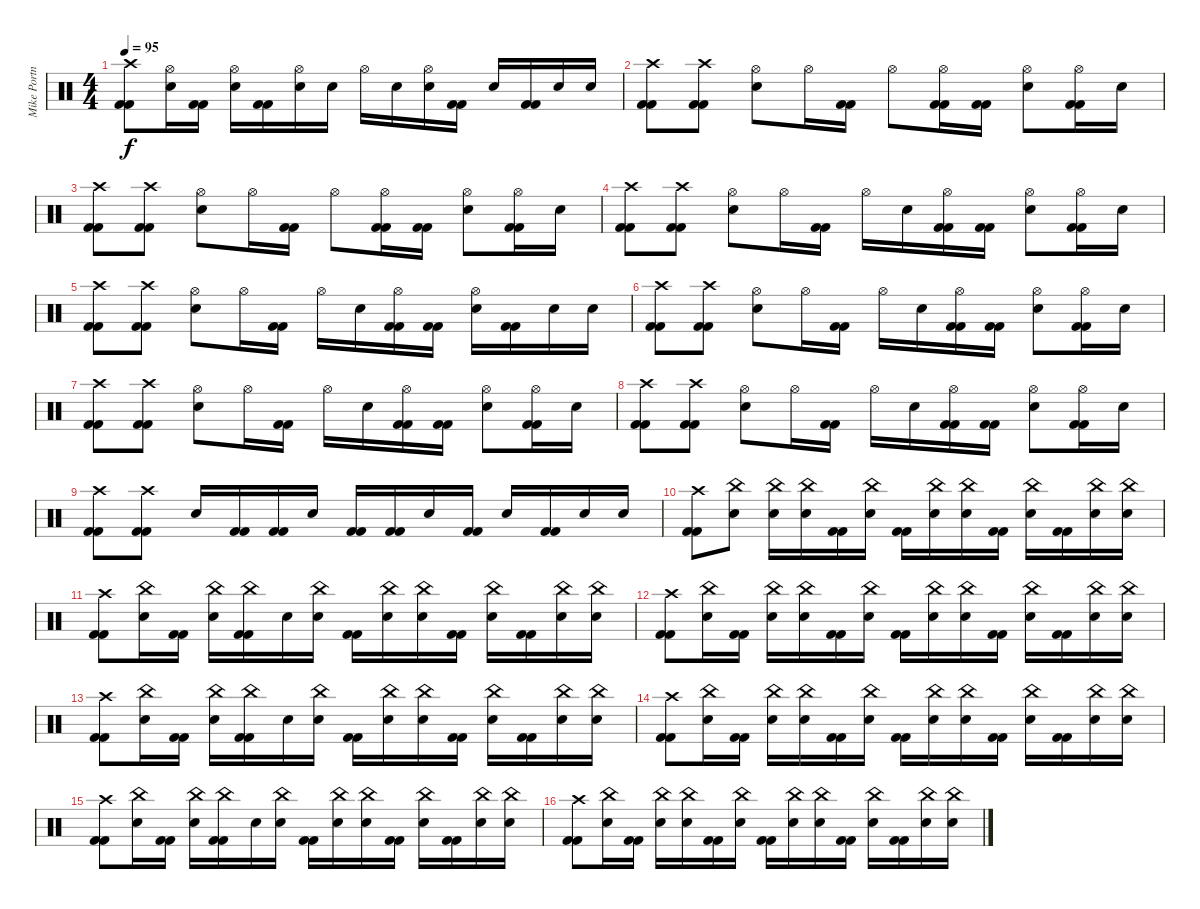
\track ("Mike Portnoy" "Mike Portn") {instrument percussion}
\staff {score}
\articulation defaults
\ts (4 4)
\tempo 95
\clef neutral
\ks c
("Crash high (hit)" "Kick (hit) 2" "Kick (hit) 2").8{dy f} ("Hi-Hat (open)" "Snare (hit) 2").16 ("Kick (hit) 2" "Kick (hit) 2").16 ("Hi-Hat (open)" "Snare (hit) 2").16 ("Kick (hit) 2" "Kick (hit) 2").16 ("Hi-Hat (open)" "Snare (hit) 2").16 "Snare (hit) 2".16 "Hi-Hat (open)".16 "Snare (hit) 2".16 ("Hi-Hat (open)" "Snare (hit) 2").16 ("Kick (hit) 2" "Kick (hit) 2").16 "Snare (hit) 2".16 ("Kick (hit) 2" "Kick (hit) 2").16 "Snare (hit) 2".16 "Snare (hit) 2".16 |
("Crash high (hit)" "Kick (hit) 2" "Kick (hit) 2").8{volume 13} ("Crash high (hit)" "Kick (hit) 2" "Kick (hit) 2").8 ("Hi-Hat (open)" "Snare (hit) 2").8 "Hi-Hat (open)".16 ("Kick (hit) 2" "Kick (hit) 2").16 "Hi-Hat (open)".8 ("Hi-Hat (open)" "Kick (hit) 2" "Kick (hit) 2").16 ("Kick (hit) 2" "Kick (hit) 2").16 ("Hi-Hat (open)" "Snare (hit) 2").8 ("Hi-Hat (open)" "Kick (hit) 2" "Kick (hit) 2").16 "Snare (hit) 2".16 |
("Crash high (hit)" "Kick (hit) 2" "Kick (hit) 2").8 ("Crash high (hit)" "Kick (hit) 2" "Kick (hit) 2").8 ("Hi-Hat (open)" "Snare (hit) 2").8 "Hi-Hat (open)".16 ("Kick (hit) 2" "Kick (hit) 2").16 "Hi-Hat (open)".8 ("Hi-Hat (open)" "Kick (hit) 2" "Kick (hit) 2").16 ("Kick (hit) 2" "Kick (hit) 2").16 ("Hi-Hat (open)" "Snare (hit) 2").8 ("Hi-Hat (open)" "Kick (hit) 2" "Kick (hit) 2").16 "Snare (hit) 2".16 |
("Crash high (hit)" "Kick (hit) 2" "Kick (hit) 2").8 ("Crash high (hit)" "Kick (hit) 2" "Kick (hit) 2").8 ("Hi-Hat (open)" "Snare (hit) 2").8 "Hi-Hat (open)".16 ("Kick (hit) 2" "Kick (hit) 2").16 "Hi-Hat (open)".16 "Snare (hit) 2".16 ("Hi-Hat (open)" "Kick (hit) 2" "Kick (hit) 2").16 ("Kick (hit) 2" "Kick (hit) 2").16 ("Hi-Hat (open)" "Snare (hit) 2").8 ("Hi-Hat (open)" "Kick (hit) 2" "Kick (hit) 2").16 "Snare (hit) 2".16 |
("Crash high (hit)" "Kick (hit) 2" "Kick (hit) 2").8 ("Crash high (hit)" "Kick (hit) 2" "Kick (hit) 2").8 ("Hi-Hat (open)" "Snare (hit) 2").8 "Hi-Hat (open)".16 ("Kick (hit) 2" "Kick (hit) 2").16 "Hi-Hat (open)".16 "Snare (hit) 2".16 ("Hi-Hat (open)" "Kick (hit) 2" "Kick (hit) 2").16 ("Kick (hit) 2" "Kick (hit) 2").16 ("Hi-Hat (open)" "Snare (hit) 2").16 ("Kick (hit) 2" "Kick (hit) 2").16 "Snare (hit) 2".16 "Snare (hit) 2".16 |
("Crash high (hit)" "Kick (hit) 2" "Kick (hit) 2").8 ("Crash high (hit)" "Kick (hit) 2" "Kick (hit) 2").8 ("Hi-Hat (open)" "Snare (hit) 2").8 "Hi-Hat (open)".16 ("Kick (hit) 2" "Kick (hit) 2").16 "Hi-Hat (open)".16 "Snare (hit) 2".16 ("Hi-Hat (open)" "Kick (hit) 2" "Kick (hit) 2").16 ("Kick (hit) 2" "Kick (hit) 2").16 ("Hi-Hat (open)" "Snare (hit) 2").8 ("Hi-Hat (open)" "Kick (hit) 2" "Kick (hit) 2").16 "Snare (hit) 2".16 |
("Crash high (hit)" "Kick (hit) 2" "Kick (hit) 2").8 ("Crash high (hit)" "Kick (hit) 2" "Kick (hit) 2").8 ("Hi-Hat (open)" "Snare (hit) 2").8 "Hi-Hat (open)".16 ("Kick (hit) 2" "Kick (hit) 2").16 "Hi-Hat (open)".16 "Snare (hit) 2".16 ("Hi-Hat (open)" "Kick (hit) 2" "Kick (hit) 2").16 ("Kick (hit) 2" "Kick (hit) 2").16 ("Hi-Hat (open)" "Snare (hit) 2").8 ("Hi-Hat (open)" "Kick (hit) 2" "Kick (hit) 2").16 "Snare (hit) 2".16 |
("Crash high (hit)" "Kick (hit) 2" "Kick (hit) 2").8 ("Crash high (hit)" "Kick (hit) 2" "Kick (hit) 2").8 ("Hi-Hat (open)" "Snare (hit) 2").8 "Hi-Hat (open)".16 ("Kick (hit) 2" "Kick (hit) 2").16 "Hi-Hat (open)".16 "Snare (hit) 2".16 ("Hi-Hat (open)" "Kick (hit) 2" "Kick (hit) 2").16 ("Kick (hit) 2" "Kick (hit) 2").16 ("Hi-Hat (open)" "Snare (hit) 2").8 ("Hi-Hat (open)" "Kick (hit) 2" "Kick (hit) 2").16 "Snare (hit) 2".16 |
("Crash high (hit)" "Kick (hit) 2" "Kick (hit) 2").8 ("Crash high (hit)" "Kick (hit) 2" "Kick (hit) 2").8 "Snare (hit) 2".16 ("Kick (hit) 2" "Kick (hit) 2").16 ("Kick (hit) 2" "Kick (hit) 2").16 "Snare (hit) 2".16 ("Kick (hit) 2" "Kick (hit) 2").16 ("Kick (hit) 2" "Kick (hit) 2").16 "Snare (hit) 2".16 ("Kick (hit) 2" "Kick (hit) 2").16 "Snare (hit) 2".16 ("Kick (hit) 2" "Kick (hit) 2").16 "Snare (hit) 2".16 "Snare (hit) 2".16 |
("Crash high (hit)" "Kick (hit) 2" "Kick (hit) 2").8 ("China (hit)" "Snare (hit) 2").8 ("China (hit)" "Snare (hit) 2").16 ("China (hit)" "Snare (hit) 2").16 ("Kick (hit) 2" "Kick (hit) 2").16 ("China (hit)" "Snare (hit) 2").16 ("Kick (hit) 2" "Kick (hit) 2").16 ("China (hit)" "Snare (hit) 2").16 ("China (hit)" "Snare (hit) 2").16 ("Kick (hit) 2" "Kick (hit) 2").16 ("China (hit)" "Snare (hit) 2").16 ("Kick (hit) 2" "Kick (hit) 2").16 ("China (hit)" "Snare (hit) 2").16 ("China (hit)" "Snare (hit) 2").16 |
("Crash high (hit)" "Kick (hit) 2" "Kick (hit) 2").8 ("China (hit)" "Snare (hit) 2").16 ("Kick (hit) 2" "Kick (hit) 2").16 ("China (hit)" "Snare (hit) 2").16 ("China (hit)" "Kick (hit) 2" "Kick (hit) 2").16 "Snare (hit) 2".16 ("China (hit)" "Snare (hit) 2").16 ("Kick (hit) 2" "Kick (hit) 2").16 ("China (hit)" "Snare (hit) 2").16 ("China (hit)" "Snare (hit) 2").16 ("Kick (hit) 2" "Kick (hit) 2").16 ("China (hit)" "Snare (hit) 2").16 ("Kick (hit) 2" "Kick (hit) 2").16 ("China (hit)" "Snare (hit) 2").16 ("China (hit)" "Snare (hit) 2").16 |
("Crash high (hit)" "Kick (hit) 2" "Kick (hit) 2").8 ("China (hit)" "Snare (hit) 2").16 ("Kick (hit) 2" "Kick (hit) 2").16 ("China (hit)" "Snare (hit) 2").16 ("China (hit)" "Snare (hit) 2").16 ("Kick (hit) 2" "Kick (hit) 2").16 ("China (hit)" "Snare (hit) 2").16 ("Kick (hit) 2" "Kick (hit) 2").16 ("China (hit)" "Snare (hit) 2").16 ("China (hit)" "Snare (hit) 2").16 ("Kick (hit) 2" "Kick (hit) 2").16 ("China (hit)" "Snare (hit) 2").16 ("Kick (hit) 2" "Kick (hit) 2").16 ("China (hit)" "Snare (hit) 2").16 ("China (hit)" "Snare (hit) 2").16 |
("Crash high (hit)" "Kick (hit) 2" "Kick (hit) 2").8 ("China (hit)" "Snare (hit) 2").16 ("Kick (hit) 2" "Kick (hit) 2").16 ("China (hit)" "Snare (hit) 2").16 ("China (hit)" "Kick (hit) 2" "Kick (hit) 2").16 "Snare (hit) 2".16 ("China (hit)" "Snare (hit) 2").16 ("Kick (hit) 2" "Kick (hit) 2").16 ("China (hit)" "Snare (hit) 2").16 ("China (hit)" "Snare (hit) 2").16 ("Kick (hit) 2" "Kick (hit) 2").16 ("China (hit)" "Snare (hit) 2").16 ("Kick (hit) 2" "Kick (hit) 2").16 ("China (hit)" "Snare (hit) 2").16 ("China (hit)" "Snare (hit) 2").16 |
("Crash high (hit)" "Kick (hit) 2" "Kick (hit) 2").8 ("China (hit)" "Snare (hit) 2").16 ("Kick (hit) 2" "Kick (hit) 2").16 ("China (hit)" "Snare (hit) 2").16 ("China (hit)" "Snare (hit) 2").16 ("Kick (hit) 2" "Kick (hit) 2").16 ("China (hit)" "Snare (hit) 2").16 ("Kick (hit) 2" "Kick (hit) 2").16 ("China (hit)" "Snare (hit) 2").16 ("China (hit)" "Snare (hit) 2").16 ("Kick (hit) 2" "Kick (hit) 2").16 ("China (hit)" "Snare (hit) 2").16 ("Kick (hit) 2" "Kick (hit) 2").16 ("China (hit)" "Snare (hit) 2").16 ("China (hit)" "Snare (hit) 2").16 |
("Crash high (hit)" "Kick (hit) 2" "Kick (hit) 2").8 ("China (hit)" "Snare (hit) 2").16 ("Kick (hit) 2" "Kick (hit) 2").16 ("China (hit)" "Snare (hit) 2").16 ("China (hit)" "Kick (hit) 2" "Kick (hit) 2").16 "Snare (hit) 2".16 ("China (hit)" "Snare (hit) 2").16 ("Kick (hit) 2" "Kick (hit) 2").16 ("China (hit)" "Snare (hit) 2").16 ("China (hit)" "Snare (hit) 2").16 ("Kick (hit) 2" "Kick (hit) 2").16 ("China (hit)" "Snare (hit) 2").16 ("Kick (hit) 2" "Kick (hit) 2").16 ("China (hit)" "Snare (hit) 2").16 ("China (hit)" "Snare (hit) 2").16 |
("Crash high (hit)" "Kick (hit) 2" "Kick (hit) 2").8 ("China (hit)" "Snare (hit) 2").16 ("Kick (hit) 2" "Kick (hit) 2").16 ("China (hit)" "Snare (hit) 2").16 ("China (hit)" "Snare (hit) 2").16 ("Kick (hit) 2" "Kick (hit) 2").16 ("China (hit)" "Snare (hit) 2").16 ("Kick (hit) 2" "Kick (hit) 2").16 ("China (hit)" "Snare (hit) 2").16 ("China (hit)" "Snare (hit) 2").16 ("Kick (hit) 2" "Kick (hit) 2").16 ("China (hit)" "Snare (hit) 2").16 ("Kick (hit) 2" "Kick (hit) 2").16 ("China (hit)" "Snare (hit) 2").16 ("China (hit)" "Snare (hit) 2").16
